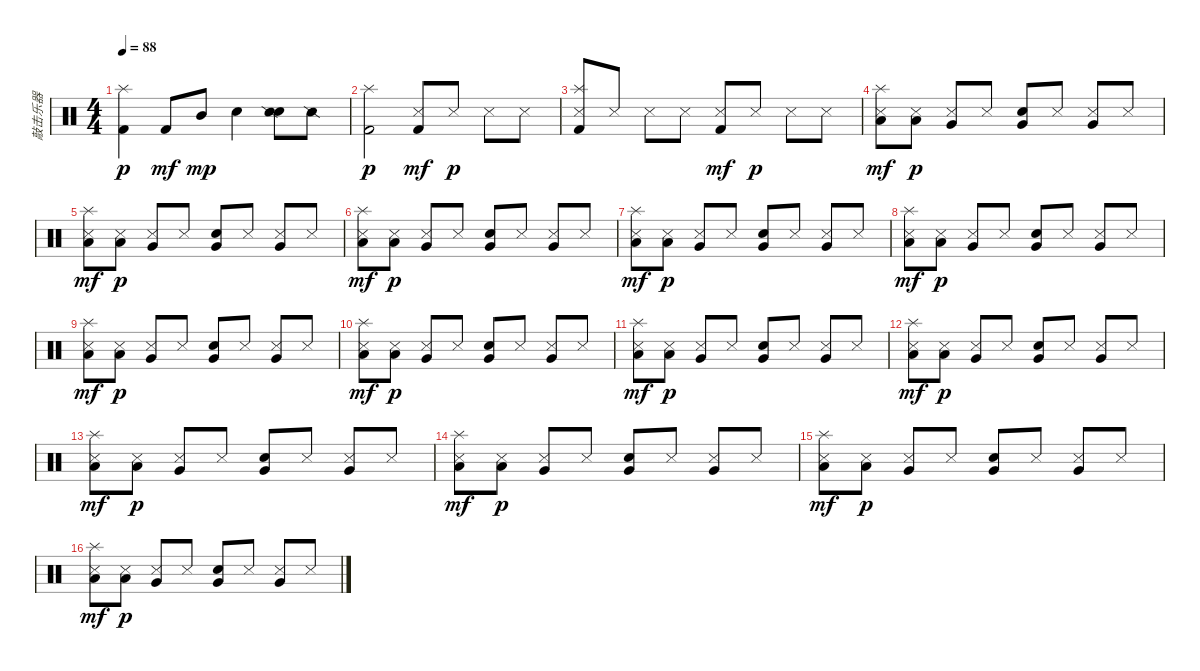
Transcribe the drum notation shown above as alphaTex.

\track ("敲击乐器" "敲击乐器") {instrument percussion}
\staff {score}
\articulation defaults
\ts (4 4)
\tempo 88
\clef neutral
\ks c
("Kick (hit) 2" "Splash (hit)").4{dy p} "Kick (hit) 2".8{dy mf} "Mid Tom (hit)".8{dy mp} "Snare (hit) 2".4 ("Snare (hit) 2" "Snare (side stick) 2").8 "Snare (side stick) 2".8 |
("Kick (hit) 2" "Splash (hit)").2{dy p} ("Kick (hit) 2" "Snare (side stick) 3").8{dy mf} "Snare (side stick) 3".8{dy p} "Snare (side stick) 3".8 "Snare (side stick) 3".8 |
("Kick (hit) 2" "Snare (side stick) 3" "Splash (hit)").8 "Snare (side stick) 3".8 "Snare (side stick) 3".8 "Snare (side stick) 3".8 ("Kick (hit) 2" "Snare (side stick) 3").8{dy mf} "Snare (side stick) 3".8{dy p} "Snare (side stick) 3".8 "Snare (side stick) 3".8 |
("Low Floor Tom (hit)" "Splash (hit)" "Snare (side stick) 3").8{dy mf} ("Low Floor Tom (hit)" "Snare (side stick) 3").8{dy p} ("Very Low Tom (hit)" "Snare (side stick) 3").8 "Snare (side stick) 3".8 ("Very Low Tom (hit)" "Snare (hit) 2").8 "Snare (side stick) 3".8 ("Very Low Tom (hit)" "Snare (side stick) 3").8 "Snare (side stick) 3".8 |
("Low Floor Tom (hit)" "Splash (hit)" "Snare (side stick) 3").8{dy mf} ("Low Floor Tom (hit)" "Snare (side stick) 3").8{dy p} ("Very Low Tom (hit)" "Snare (side stick) 3").8 "Snare (side stick) 3".8 ("Very Low Tom (hit)" "Snare (hit) 2").8 "Snare (side stick) 3".8 ("Very Low Tom (hit)" "Snare (side stick) 3").8 "Snare (side stick) 3".8 |
("Low Floor Tom (hit)" "Splash (hit)" "Snare (side stick) 3").8{dy mf} ("Low Floor Tom (hit)" "Snare (side stick) 3").8{dy p} ("Very Low Tom (hit)" "Snare (side stick) 3").8 "Snare (side stick) 3".8 ("Very Low Tom (hit)" "Snare (hit) 2").8 "Snare (side stick) 3".8 ("Very Low Tom (hit)" "Snare (side stick) 3").8 "Snare (side stick) 3".8 |
("Low Floor Tom (hit)" "Splash (hit)" "Snare (side stick) 3").8{dy mf} ("Low Floor Tom (hit)" "Snare (side stick) 3").8{dy p} ("Very Low Tom (hit)" "Snare (side stick) 3").8 "Snare (side stick) 3".8 ("Very Low Tom (hit)" "Snare (hit) 2").8 "Snare (side stick) 3".8 ("Very Low Tom (hit)" "Snare (side stick) 3").8 "Snare (side stick) 3".8 |
("Low Floor Tom (hit)" "Splash (hit)" "Snare (side stick) 3").8{dy mf} ("Low Floor Tom (hit)" "Snare (side stick) 3").8{dy p} ("Very Low Tom (hit)" "Snare (side stick) 3").8 "Snare (side stick) 3".8 ("Very Low Tom (hit)" "Snare (hit) 2").8 "Snare (side stick) 3".8 ("Very Low Tom (hit)" "Snare (side stick) 3").8 "Snare (side stick) 3".8 |
("Low Floor Tom (hit)" "Splash (hit)" "Snare (side stick) 3").8{dy mf} ("Low Floor Tom (hit)" "Snare (side stick) 3").8{dy p} ("Very Low Tom (hit)" "Snare (side stick) 3").8 "Snare (side stick) 3".8 ("Very Low Tom (hit)" "Snare (hit) 2").8 "Snare (side stick) 3".8 ("Very Low Tom (hit)" "Snare (side stick) 3").8 "Snare (side stick) 3".8 |
("Low Floor Tom (hit)" "Splash (hit)" "Snare (side stick) 3").8{dy mf} ("Low Floor Tom (hit)" "Snare (side stick) 3").8{dy p} ("Very Low Tom (hit)" "Snare (side stick) 3").8 "Snare (side stick) 3".8 ("Very Low Tom (hit)" "Snare (hit) 2").8 "Snare (side stick) 3".8 ("Very Low Tom (hit)" "Snare (side stick) 3").8 "Snare (side stick) 3".8 |
("Low Floor Tom (hit)" "Splash (hit)" "Snare (side stick) 3").8{dy mf} ("Low Floor Tom (hit)" "Snare (side stick) 3").8{dy p} ("Very Low Tom (hit)" "Snare (side stick) 3").8 "Snare (side stick) 3".8 ("Very Low Tom (hit)" "Snare (hit) 2").8 "Snare (side stick) 3".8 ("Very Low Tom (hit)" "Snare (side stick) 3").8 "Snare (side stick) 3".8 |
("Low Floor Tom (hit)" "Splash (hit)" "Snare (side stick) 3").8{dy mf} ("Low Floor Tom (hit)" "Snare (side stick) 3").8{dy p} ("Very Low Tom (hit)" "Snare (side stick) 3").8 "Snare (side stick) 3".8 ("Very Low Tom (hit)" "Snare (hit) 2").8 "Snare (side stick) 3".8 ("Very Low Tom (hit)" "Snare (side stick) 3").8 "Snare (side stick) 3".8 |
("Low Floor Tom (hit)" "Splash (hit)" "Snare (side stick) 3").8{dy mf} ("Low Floor Tom (hit)" "Snare (side stick) 3").8{dy p} ("Very Low Tom (hit)" "Snare (side stick) 3").8 "Snare (side stick) 3".8 ("Very Low Tom (hit)" "Snare (hit) 2").8 "Snare (side stick) 3".8 ("Very Low Tom (hit)" "Snare (side stick) 3").8 "Snare (side stick) 3".8 |
("Low Floor Tom (hit)" "Splash (hit)" "Snare (side stick) 3").8{dy mf} ("Low Floor Tom (hit)" "Snare (side stick) 3").8{dy p} ("Very Low Tom (hit)" "Snare (side stick) 3").8 "Snare (side stick) 3".8 ("Very Low Tom (hit)" "Snare (hit) 2").8 "Snare (side stick) 3".8 ("Very Low Tom (hit)" "Snare (side stick) 3").8 "Snare (side stick) 3".8 |
("Low Floor Tom (hit)" "Splash (hit)" "Snare (side stick) 3").8{dy mf} ("Low Floor Tom (hit)" "Snare (side stick) 3").8{dy p} ("Very Low Tom (hit)" "Snare (side stick) 3").8 "Snare (side stick) 3".8 ("Very Low Tom (hit)" "Snare (hit) 2").8 "Snare (side stick) 3".8 ("Very Low Tom (hit)" "Snare (side stick) 3").8 "Snare (side stick) 3".8 |
("Low Floor Tom (hit)" "Splash (hit)" "Snare (side stick) 3").8{dy mf} ("Low Floor Tom (hit)" "Snare (side stick) 3").8{dy p} ("Very Low Tom (hit)" "Snare (side stick) 3").8 "Snare (side stick) 3".8 ("Very Low Tom (hit)" "Snare (hit) 2").8 "Snare (side stick) 3".8 ("Very Low Tom (hit)" "Snare (side stick) 3").8 "Snare (side stick) 3".8
